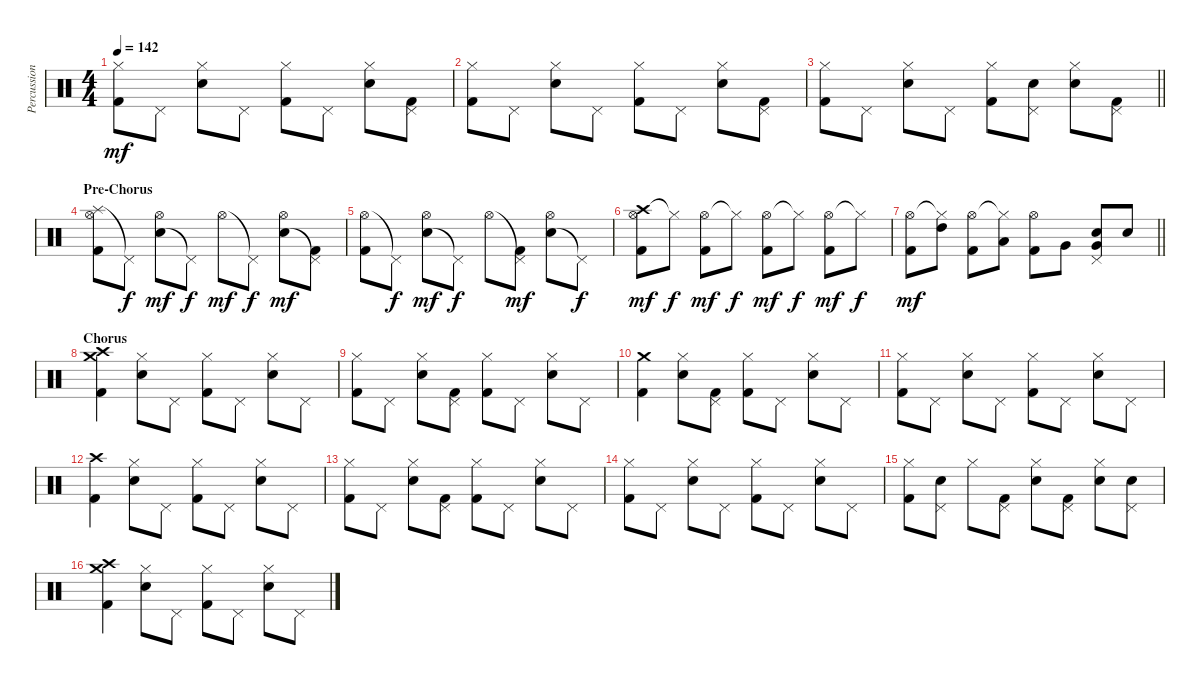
\track ("Percussion" "Percussion") {instrument percussion}
\staff {score}
\articulation defaults
\ts (4 4)
\tempo 142
\clef neutral
\ks c
("Hi-Hat (closed)" "Kick (hit) 2").8{dy mf} "Pedal Hi-Hat (hit)".8 ("Snare (hit) 2" "Hi-Hat (closed)").8 "Pedal Hi-Hat (hit)".8 ("Hi-Hat (closed)" "Kick (hit) 2").8 "Pedal Hi-Hat (hit)".8 ("Snare (hit) 2" "Hi-Hat (closed)").8 ("Pedal Hi-Hat (hit)" "Kick (hit) 2").8 |
("Hi-Hat (closed)" "Kick (hit) 2").8 "Pedal Hi-Hat (hit)".8 ("Snare (hit) 2" "Hi-Hat (closed)").8 "Pedal Hi-Hat (hit)".8 ("Hi-Hat (closed)" "Kick (hit) 2").8 "Pedal Hi-Hat (hit)".8 ("Snare (hit) 2" "Hi-Hat (closed)").8 ("Pedal Hi-Hat (hit)" "Kick (hit) 2").8 |
\barLineRight lightlight
("Hi-Hat (closed)" "Kick (hit) 2").8 "Pedal Hi-Hat (hit)".8 ("Snare (hit) 2" "Hi-Hat (closed)").8 "Pedal Hi-Hat (hit)".8 ("Hi-Hat (closed)" "Kick (hit) 2").8 ("Snare (hit) 2" "Pedal Hi-Hat (hit)").8 ("Snare (hit) 2" "Hi-Hat (closed)").8 ("Pedal Hi-Hat (hit)" "Kick (hit) 2").8 |
\section ("" "Pre-Chorus")
("Splash (hit)" "Hi-Hat (open)" "Kick (hit) 2").8 "Pedal Hi-Hat (hit)"{t}.8{dy f} ("Snare (hit) 2" "Hi-Hat (open)").8{dy mf} "Pedal Hi-Hat (hit)"{t}.8{dy f} "Hi-Hat (open)".8{dy mf} "Pedal Hi-Hat (hit)"{t}.8{dy f} ("Snare (hit) 2" "Hi-Hat (open)").8{dy mf} ("Pedal Hi-Hat (hit)"{t} "Kick (hit) 2").8 |
("Hi-Hat (open)" "Kick (hit) 2").8 "Pedal Hi-Hat (hit)"{t}.8{dy f} ("Snare (hit) 2" "Hi-Hat (open)").8{dy mf} "Pedal Hi-Hat (hit)"{t}.8{dy f} "Hi-Hat (open)".8 ("Pedal Hi-Hat (hit)"{t} "Kick (hit) 2").8{dy mf} ("Snare (hit) 2" "Hi-Hat (open)").8 "Pedal Hi-Hat (hit)"{t}.8{dy f} |
("Crash high (hit)" "Hi-Hat (open)" "Kick (hit) 2").8{dy mf} "Hi-Hat (closed)"{t}.8{dy f} ("Hi-Hat (open)" "Kick (hit) 2").8{dy mf} "Hi-Hat (closed)"{t}.8{dy f} ("Hi-Hat (open)" "Kick (hit) 2").8{dy mf} "Hi-Hat (closed)"{t}.8{dy f} ("Hi-Hat (open)" "Kick (hit) 2").8{dy mf} "Hi-Hat (closed)"{t}.8{dy f} |
\barLineRight lightlight
("Hi-Hat (open)" "Kick (hit) 2").8{dy mf} ("Hi-Hat (closed)"{t} "High Tom (hit)").8 ("Hi-Hat (open)" "Kick (hit) 2").8 ("Hi-Hat (closed)"{t} "Low Floor Tom (hit)").8 ("Hi-Hat (open)" "Kick (hit) 2").8 "Very Low Tom (hit)".8 ("Snare (hit) 2" "Pedal Hi-Hat (hit)" "Very Low Tom (hit)").8 "Snare (hit) 2".8 |
\section ("" "Chorus")
("Crash high (hit)" "Crash medium (hit)" "Kick (hit) 2").4 ("Snare (hit) 2" "Hi-Hat (closed)").8 "Pedal Hi-Hat (hit)".8 ("Hi-Hat (closed)" "Kick (hit) 2").8 "Pedal Hi-Hat (hit)".8 ("Snare (hit) 2" "Hi-Hat (closed)").8 "Pedal Hi-Hat (hit)".8 |
("Hi-Hat (closed)" "Kick (hit) 2").8 "Pedal Hi-Hat (hit)".8 ("Snare (hit) 2" "Hi-Hat (closed)").8 ("Pedal Hi-Hat (hit)" "Kick (hit) 2").8 ("Hi-Hat (closed)" "Kick (hit) 2").8 "Pedal Hi-Hat (hit)".8 ("Snare (hit) 2" "Hi-Hat (closed)").8 "Pedal Hi-Hat (hit)".8 |
("Crash medium (hit)" "Kick (hit) 2").4 ("Snare (hit) 2" "Hi-Hat (closed)").8 ("Pedal Hi-Hat (hit)" "Kick (hit) 2").8 ("Hi-Hat (closed)" "Kick (hit) 2").8 "Pedal Hi-Hat (hit)".8 ("Snare (hit) 2" "Hi-Hat (closed)").8 "Pedal Hi-Hat (hit)".8 |
("Hi-Hat (closed)" "Kick (hit) 2").8 "Pedal Hi-Hat (hit)".8 ("Snare (hit) 2" "Hi-Hat (closed)").8 "Pedal Hi-Hat (hit)".8 ("Hi-Hat (closed)" "Kick (hit) 2").8 "Pedal Hi-Hat (hit)".8 ("Snare (hit) 2" "Hi-Hat (closed)").8 "Pedal Hi-Hat (hit)".8 |
("Crash high (hit)" "Kick (hit) 2").4 ("Snare (hit) 2" "Hi-Hat (closed)").8 "Pedal Hi-Hat (hit)".8 ("Hi-Hat (closed)" "Kick (hit) 2").8 "Pedal Hi-Hat (hit)".8 ("Snare (hit) 2" "Hi-Hat (closed)").8 "Pedal Hi-Hat (hit)".8 |
("Hi-Hat (closed)" "Kick (hit) 2").8 "Pedal Hi-Hat (hit)".8 ("Snare (hit) 2" "Hi-Hat (closed)").8 ("Pedal Hi-Hat (hit)" "Kick (hit) 2").8 ("Hi-Hat (closed)" "Kick (hit) 2").8 "Pedal Hi-Hat (hit)".8 ("Snare (hit) 2" "Hi-Hat (closed)").8 "Pedal Hi-Hat (hit)".8 |
("Hi-Hat (closed)" "Kick (hit) 2").8 "Pedal Hi-Hat (hit)".8 ("Snare (hit) 2" "Hi-Hat (closed)").8 "Pedal Hi-Hat (hit)".8 ("Hi-Hat (closed)" "Kick (hit) 2").8 "Pedal Hi-Hat (hit)".8 ("Snare (hit) 2" "Hi-Hat (closed)").8 "Pedal Hi-Hat (hit)".8 |
("Hi-Hat (closed)" "Kick (hit) 2").8 ("Snare (hit) 2" "Pedal Hi-Hat (hit)").8 "Hi-Hat (closed)".8 ("Pedal Hi-Hat (hit)" "Kick (hit) 2").8 ("Snare (hit) 2" "Hi-Hat (closed)").8 ("Pedal Hi-Hat (hit)" "Kick (hit) 2").8 ("Snare (hit) 2" "Hi-Hat (closed)").8 ("Snare (hit) 2" "Pedal Hi-Hat (hit)").8 |
("Crash high (hit)" "Crash medium (hit)" "Kick (hit) 2").4 ("Snare (hit) 2" "Hi-Hat (closed)").8 "Pedal Hi-Hat (hit)".8 ("Hi-Hat (closed)" "Kick (hit) 2").8 "Pedal Hi-Hat (hit)".8 ("Snare (hit) 2" "Hi-Hat (closed)").8 "Pedal Hi-Hat (hit)".8
